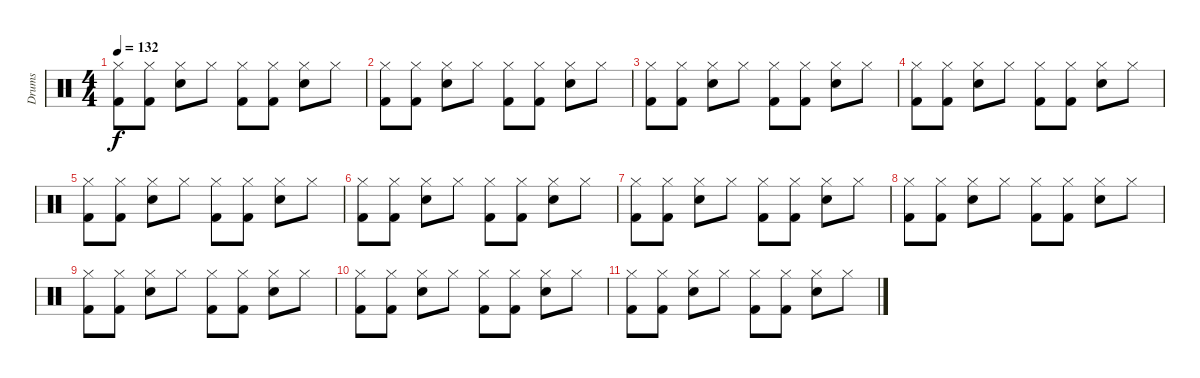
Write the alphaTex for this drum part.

\track ("Drums" "Drums") {instrument percussion}
\staff {score}
\articulation defaults
\ts (4 4)
\tempo 132
\clef neutral
\ks c
("Kick (hit) 2" "Hi-Hat (closed)").8{dy f} ("Kick (hit) 2" "Hi-Hat (closed)").8 ("Snare (hit) 2" "Hi-Hat (closed)").8 "Hi-Hat (closed)".8 ("Kick (hit) 2" "Hi-Hat (closed)").8 ("Kick (hit) 2" "Hi-Hat (closed)").8 ("Snare (hit) 2" "Hi-Hat (closed)").8 "Hi-Hat (closed)".8 |
("Kick (hit) 2" "Hi-Hat (closed)").8 ("Kick (hit) 2" "Hi-Hat (closed)").8 ("Snare (hit) 2" "Hi-Hat (closed)").8 "Hi-Hat (closed)".8 ("Kick (hit) 2" "Hi-Hat (closed)").8 ("Kick (hit) 2" "Hi-Hat (closed)").8 ("Snare (hit) 2" "Hi-Hat (closed)").8 "Hi-Hat (closed)".8 |
("Kick (hit) 2" "Hi-Hat (closed)").8 ("Kick (hit) 2" "Hi-Hat (closed)").8 ("Snare (hit) 2" "Hi-Hat (closed)").8 "Hi-Hat (closed)".8 ("Kick (hit) 2" "Hi-Hat (closed)").8 ("Kick (hit) 2" "Hi-Hat (closed)").8 ("Snare (hit) 2" "Hi-Hat (closed)").8 "Hi-Hat (closed)".8 |
("Kick (hit) 2" "Hi-Hat (closed)").8 ("Kick (hit) 2" "Hi-Hat (closed)").8 ("Snare (hit) 2" "Hi-Hat (closed)").8 "Hi-Hat (closed)".8 ("Kick (hit) 2" "Hi-Hat (closed)").8 ("Kick (hit) 2" "Hi-Hat (closed)").8 ("Snare (hit) 2" "Hi-Hat (closed)").8 "Hi-Hat (closed)".8 |
("Kick (hit) 2" "Hi-Hat (closed)").8 ("Kick (hit) 2" "Hi-Hat (closed)").8 ("Snare (hit) 2" "Hi-Hat (closed)").8 "Hi-Hat (closed)".8 ("Kick (hit) 2" "Hi-Hat (closed)").8 ("Kick (hit) 2" "Hi-Hat (closed)").8 ("Snare (hit) 2" "Hi-Hat (closed)").8 "Hi-Hat (closed)".8 |
("Kick (hit) 2" "Hi-Hat (closed)").8 ("Kick (hit) 2" "Hi-Hat (closed)").8 ("Snare (hit) 2" "Hi-Hat (closed)").8 "Hi-Hat (closed)".8 ("Kick (hit) 2" "Hi-Hat (closed)").8 ("Kick (hit) 2" "Hi-Hat (closed)").8 ("Snare (hit) 2" "Hi-Hat (closed)").8 "Hi-Hat (closed)".8 |
("Kick (hit) 2" "Hi-Hat (closed)").8 ("Kick (hit) 2" "Hi-Hat (closed)").8 ("Snare (hit) 2" "Hi-Hat (closed)").8 "Hi-Hat (closed)".8 ("Kick (hit) 2" "Hi-Hat (closed)").8 ("Kick (hit) 2" "Hi-Hat (closed)").8 ("Snare (hit) 2" "Hi-Hat (closed)").8 "Hi-Hat (closed)".8 |
("Kick (hit) 2" "Hi-Hat (closed)").8{volume 6} ("Kick (hit) 2" "Hi-Hat (closed)").8 ("Snare (hit) 2" "Hi-Hat (closed)").8 "Hi-Hat (closed)".8 ("Kick (hit) 2" "Hi-Hat (closed)").8 ("Kick (hit) 2" "Hi-Hat (closed)").8 ("Snare (hit) 2" "Hi-Hat (closed)").8 "Hi-Hat (closed)".8 |
("Kick (hit) 2" "Hi-Hat (closed)").8 ("Kick (hit) 2" "Hi-Hat (closed)").8 ("Snare (hit) 2" "Hi-Hat (closed)").8 "Hi-Hat (closed)".8 ("Kick (hit) 2" "Hi-Hat (closed)").8 ("Kick (hit) 2" "Hi-Hat (closed)").8 ("Snare (hit) 2" "Hi-Hat (closed)").8 "Hi-Hat (closed)".8 |
("Kick (hit) 2" "Hi-Hat (closed)").8{volume 0} ("Kick (hit) 2" "Hi-Hat (closed)").8 ("Snare (hit) 2" "Hi-Hat (closed)").8 "Hi-Hat (closed)".8 ("Kick (hit) 2" "Hi-Hat (closed)").8 ("Kick (hit) 2" "Hi-Hat (closed)").8 ("Snare (hit) 2" "Hi-Hat (closed)").8 "Hi-Hat (closed)".8 |
("Kick (hit) 2" "Hi-Hat (closed)").8 ("Kick (hit) 2" "Hi-Hat (closed)").8 ("Snare (hit) 2" "Hi-Hat (closed)").8 "Hi-Hat (closed)".8 ("Kick (hit) 2" "Hi-Hat (closed)").8 ("Kick (hit) 2" "Hi-Hat (closed)").8 ("Snare (hit) 2" "Hi-Hat (closed)").8 "Hi-Hat (closed)".8
